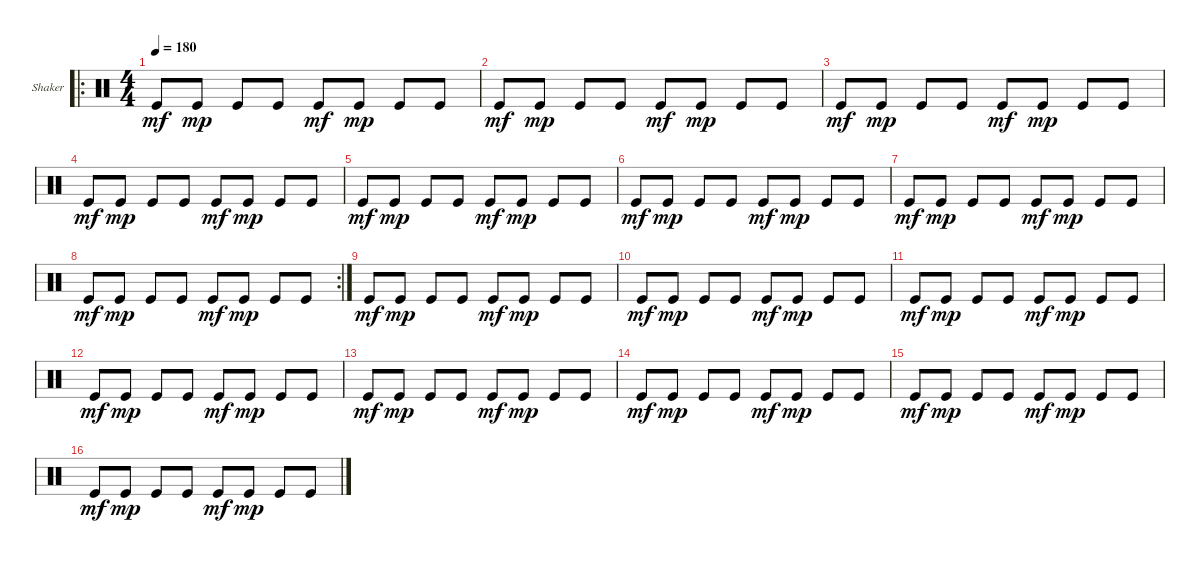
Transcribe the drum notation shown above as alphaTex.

\defaultSystemsLayout 4
\bracketExtendMode groupsimilarinstruments
\firstSystemTrackNameOrientation horizontal
\otherSystemsTrackNameOrientation horizontal
\track ("Shaker" "Shaker") {instrument percussion}
\staff {score}
\articulation defaults
\ro
\ts (4 4)
\tempo 180
\clef neutral
\ks c "Kick (hit)".8{dy mf} "Kick (hit)".8{dy mp} "Kick (hit)".8 "Kick (hit)".8 "Kick (hit)".8{dy mf} "Kick (hit)".8{dy mp} "Kick (hit)".8 "Kick (hit)".8
|
"Kick (hit)".8{dy mf} "Kick (hit)".8{dy mp} "Kick (hit)".8 "Kick (hit)".8 "Kick (hit)".8{dy mf} "Kick (hit)".8{dy mp} "Kick (hit)".8 "Kick (hit)".8 |
"Kick (hit)".8{dy mf} "Kick (hit)".8{dy mp} "Kick (hit)".8 "Kick (hit)".8 "Kick (hit)".8{dy mf} "Kick (hit)".8{dy mp} "Kick (hit)".8 "Kick (hit)".8 |
"Kick (hit)".8{dy mf} "Kick (hit)".8{dy mp} "Kick (hit)".8 "Kick (hit)".8 "Kick (hit)".8{dy mf} "Kick (hit)".8{dy mp} "Kick (hit)".8 "Kick (hit)".8 |
"Kick (hit)".8{dy mf} "Kick (hit)".8{dy mp} "Kick (hit)".8 "Kick (hit)".8 "Kick (hit)".8{dy mf} "Kick (hit)".8{dy mp} "Kick (hit)".8 "Kick (hit)".8 |
"Kick (hit)".8{dy mf} "Kick (hit)".8{dy mp} "Kick (hit)".8 "Kick (hit)".8 "Kick (hit)".8{dy mf} "Kick (hit)".8{dy mp} "Kick (hit)".8 "Kick (hit)".8 |
"Kick (hit)".8{dy mf} "Kick (hit)".8{dy mp} "Kick (hit)".8 "Kick (hit)".8 "Kick (hit)".8{dy mf} "Kick (hit)".8{dy mp} "Kick (hit)".8 "Kick (hit)".8 |
\rc 2 "Kick (hit)".8{dy mf} "Kick (hit)".8{dy mp} "Kick (hit)".8 "Kick (hit)".8 "Kick (hit)".8{dy mf} "Kick (hit)".8{dy mp} "Kick (hit)".8 "Kick (hit)".8
|
"Kick (hit)".8{dy mf} "Kick (hit)".8{dy mp} "Kick (hit)".8 "Kick (hit)".8 "Kick (hit)".8{dy mf} "Kick (hit)".8{dy mp} "Kick (hit)".8 "Kick (hit)".8 |
"Kick (hit)".8{dy mf} "Kick (hit)".8{dy mp} "Kick (hit)".8 "Kick (hit)".8 "Kick (hit)".8{dy mf} "Kick (hit)".8{dy mp} "Kick (hit)".8 "Kick (hit)".8 |
"Kick (hit)".8{dy mf} "Kick (hit)".8{dy mp} "Kick (hit)".8 "Kick (hit)".8 "Kick (hit)".8{dy mf} "Kick (hit)".8{dy mp} "Kick (hit)".8 "Kick (hit)".8 |
"Kick (hit)".8{dy mf} "Kick (hit)".8{dy mp} "Kick (hit)".8 "Kick (hit)".8 "Kick (hit)".8{dy mf} "Kick (hit)".8{dy mp} "Kick (hit)".8 "Kick (hit)".8 |
"Kick (hit)".8{dy mf} "Kick (hit)".8{dy mp} "Kick (hit)".8 "Kick (hit)".8 "Kick (hit)".8{dy mf} "Kick (hit)".8{dy mp} "Kick (hit)".8 "Kick (hit)".8 |
"Kick (hit)".8{dy mf} "Kick (hit)".8{dy mp} "Kick (hit)".8 "Kick (hit)".8 "Kick (hit)".8{dy mf} "Kick (hit)".8{dy mp} "Kick (hit)".8 "Kick (hit)".8 |
"Kick (hit)".8{dy mf} "Kick (hit)".8{dy mp} "Kick (hit)".8 "Kick (hit)".8 "Kick (hit)".8{dy mf} "Kick (hit)".8{dy mp} "Kick (hit)".8 "Kick (hit)".8 |
"Kick (hit)".8{dy mf} "Kick (hit)".8{dy mp} "Kick (hit)".8 "Kick (hit)".8 "Kick (hit)".8{dy mf} "Kick (hit)".8{dy mp} "Kick (hit)".8 "Kick (hit)".8
